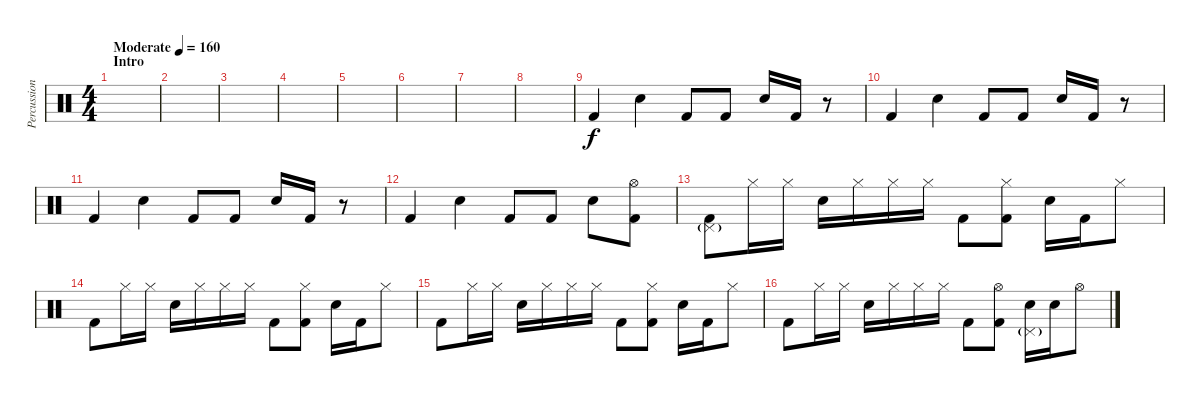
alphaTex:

\track ("Percussion" "Percussion") {instrument percussion}
\staff {score}
\articulation defaults
\ts (4 4)
\section ("" "Intro")
\tempo (160 "Moderate")
\clef neutral
\ks c
|
|
|
|
|
|
|
|
"Kick (hit) 2".4 "Electric Snare (hit)".4 "Kick (hit) 2".8 "Kick (hit) 2".8 "Electric Snare (hit)".16 "Kick (hit) 2".16 r.8 |
"Kick (hit) 2".4 "Electric Snare (hit)".4 "Kick (hit) 2".8 "Kick (hit) 2".8 "Electric Snare (hit)".16 "Kick (hit) 2".16 r.8 |
"Kick (hit) 2".4 "Electric Snare (hit)".4 "Kick (hit) 2".8 "Kick (hit) 2".8 "Electric Snare (hit)".16 "Kick (hit) 2".16 r.8 |
"Kick (hit) 2".4 "Electric Snare (hit)".4 "Kick (hit) 2".8 "Kick (hit) 2".8 "Electric Snare (hit)".8 ("Hi-Hat (open)" "Kick (hit) 2").8 |
("Pedal Hi-Hat (hit)"{g} "Kick (hit) 2").8 "Hi-Hat (closed)".16 "Hi-Hat (closed)".16 "Electric Snare (hit)".16 "Hi-Hat (closed)".16 "Hi-Hat (closed)".16 "Hi-Hat (closed)".16 "Kick (hit) 2".8 ("Hi-Hat (closed)" "Kick (hit) 2").8 "Electric Snare (hit)".16 "Kick (hit) 2".16 "Hi-Hat (closed)".8 |
"Kick (hit) 2".8 "Hi-Hat (closed)".16 "Hi-Hat (closed)".16 "Electric Snare (hit)".16 "Hi-Hat (closed)".16 "Hi-Hat (closed)".16 "Hi-Hat (closed)".16 "Kick (hit) 2".8 ("Hi-Hat (closed)" "Kick (hit) 2").8 "Electric Snare (hit)".16 "Kick (hit) 2".16 "Hi-Hat (closed)".8 |
"Kick (hit) 2".8 "Hi-Hat (closed)".16 "Hi-Hat (closed)".16 "Electric Snare (hit)".16 "Hi-Hat (closed)".16 "Hi-Hat (closed)".16 "Hi-Hat (closed)".16 "Kick (hit) 2".8 ("Hi-Hat (closed)" "Kick (hit) 2").8 "Electric Snare (hit)".16 "Kick (hit) 2".16 "Hi-Hat (closed)".8 |
"Kick (hit) 2".8 "Hi-Hat (closed)".16 "Hi-Hat (closed)".16 "Electric Snare (hit)".16 "Hi-Hat (closed)".16 "Hi-Hat (closed)".16 "Hi-Hat (closed)".16 "Kick (hit) 2".8 ("Hi-Hat (open)" "Kick (hit) 2").8 ("Pedal Hi-Hat (hit)"{g} "Electric Snare (hit)").16 "Electric Snare (hit)".16 "Hi-Hat (open)".8
